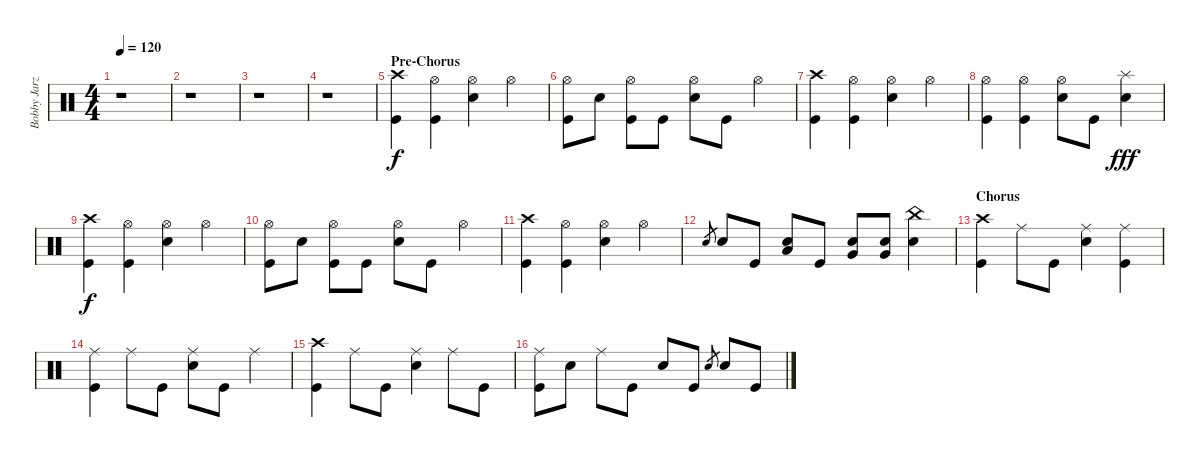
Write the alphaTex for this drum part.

\track ("Bobby Jarzombek" "Bobby Jarz") {instrument percussion}
\staff {score}
\articulation defaults
\ts (4 4)
\tempo 120
\clef neutral
\ks c
r.1{dy f} |
r.1 |
r.1 |
r.1 |
\section ("" "Pre-Chorus")
("Crash high (hit)" "Kick (hit)").4 ("Hi-Hat (open)" "Kick (hit)").4 ("Hi-Hat (open)" "Electric Snare (hit)").4 "Hi-Hat (open)".4 |
("Hi-Hat (open)" "Kick (hit)").8 "Electric Snare (hit)".8 ("Hi-Hat (open)" "Kick (hit)").8 "Kick (hit)".8 ("Hi-Hat (open)" "Electric Snare (hit)").8 "Kick (hit)".8 "Hi-Hat (open)".4 |
("Crash high (hit)" "Kick (hit)").4 ("Hi-Hat (open)" "Kick (hit)").4 ("Hi-Hat (open)" "Electric Snare (hit)").4 "Hi-Hat (open)".4 |
("Hi-Hat (open)" "Kick (hit)").4 ("Hi-Hat (open)" "Kick (hit)").4 ("Hi-Hat (open)" "Electric Snare (hit)").8 "Kick (hit)".8 ("Splash (hit)" "Electric Snare (hit)").4{dy fff} |
("Crash high (hit)" "Kick (hit)").4{dy f} ("Hi-Hat (open)" "Kick (hit)").4 ("Hi-Hat (open)" "Electric Snare (hit)").4 "Hi-Hat (open)".4 |
("Hi-Hat (open)" "Kick (hit)").8 "Electric Snare (hit)".8 ("Hi-Hat (open)" "Kick (hit)").8 "Kick (hit)".8 ("Hi-Hat (open)" "Electric Snare (hit)").8 "Kick (hit)".8 "Hi-Hat (open)".4 |
("Crash high (hit)" "Kick (hit)").4 ("Hi-Hat (open)" "Kick (hit)").4 ("Hi-Hat (open)" "Electric Snare (hit)").4 "Hi-Hat (open)".4 |
"Electric Snare (hit)".8{gr} "Electric Snare (hit)".8 "Kick (hit)".8 ("Low Tom (hit)" "Electric Snare (hit)").8 "Kick (hit)".8 ("Very Low Tom (hit)" "Electric Snare (hit)").8 ("Very Low Tom (hit)" "Electric Snare (hit)").8 ("China (hit)" "Electric Snare (hit)").4 |
\section ("" "Chorus")
("Crash high (hit)" "Kick (hit)").4 "Ride (middle)".8 "Kick (hit)".8 ("Ride (middle)" "Electric Snare (hit)").4 ("Ride (middle)" "Kick (hit)").4 |
("Ride (middle)" "Kick (hit)").4 "Ride (middle)".8 "Kick (hit)".8 ("Ride (middle)" "Electric Snare (hit)").8 "Kick (hit)".8 "Ride (middle)".4 |
("Crash high (hit)" "Kick (hit)").4 "Ride (middle)".8 "Kick (hit)".8 ("Ride (middle)" "Electric Snare (hit)").4 "Ride (middle)".8 "Kick (hit)".8 |
("Ride (middle)" "Kick (hit)").8 "Electric Snare (hit)".8 "Ride (middle)".8 "Kick (hit)".8 "Electric Snare (hit)".8 "Kick (hit)".8 "Electric Snare (hit)".8{gr} "Electric Snare (hit)".8 "Kick (hit)".8
